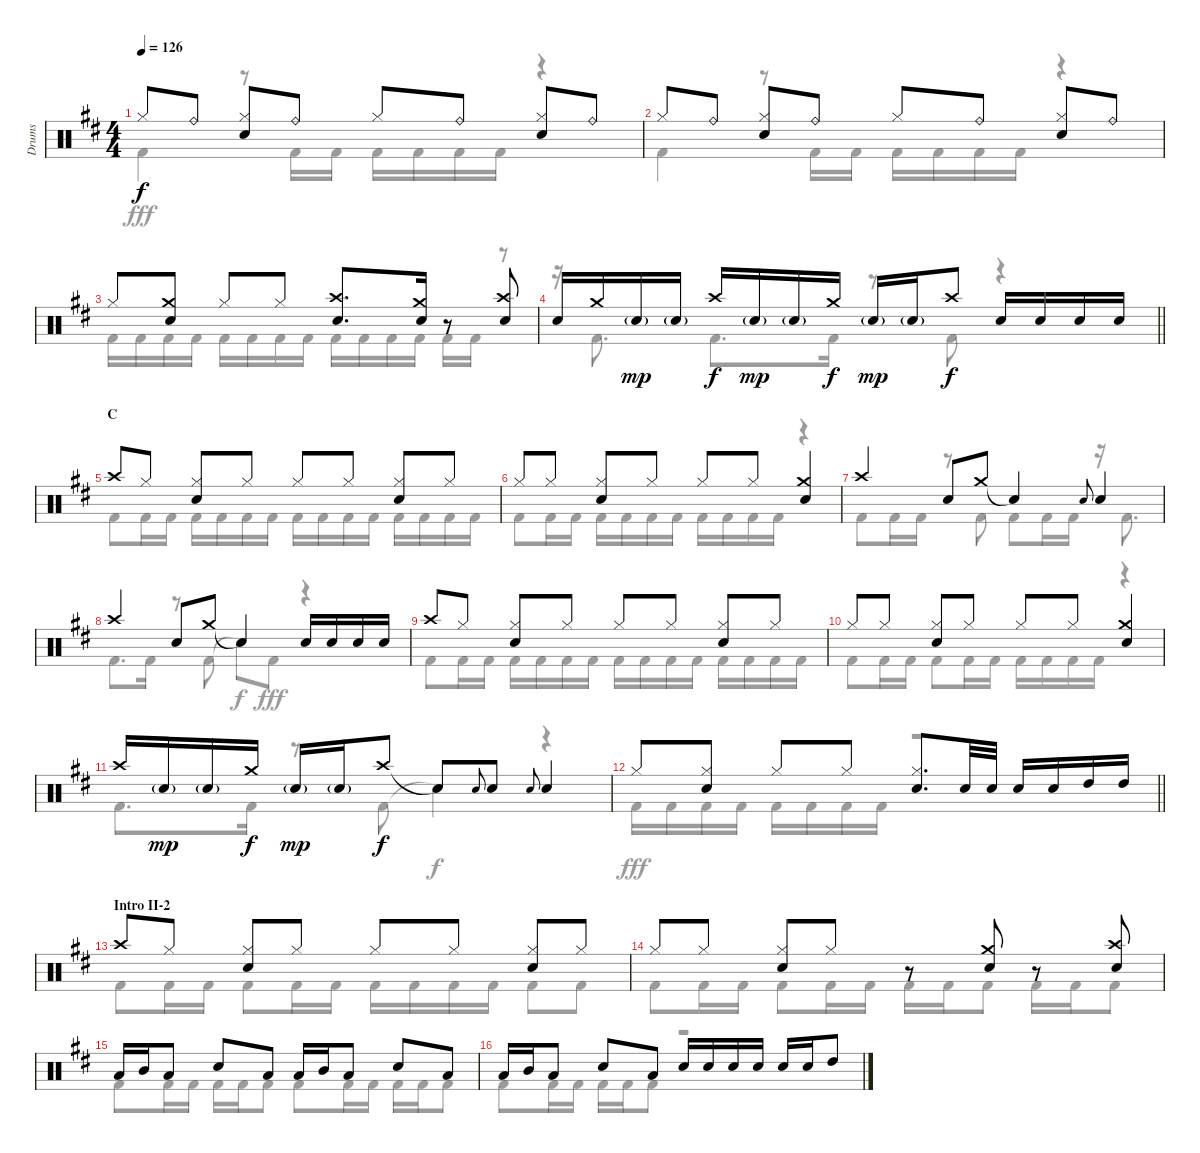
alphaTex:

\track ("Drums" "Drums") {instrument percussion}
\staff {score}
\articulation defaults
\voice
\ts (4 4)
\tempo 126
\clef neutral
\ks d "Hi-Hat (closed)".8{dy f} "Ride (bell)".8
("Hi-Hat (closed)" "Snare (hit) 2").8 "Ride (bell)".8 "Hi-Hat (closed)".8 "Ride (bell)".8 ("Hi-Hat (closed)" "Snare (hit) 2").8 "Ride (bell)".8 |
"Hi-Hat (closed)".8 "Ride (bell)".8 ("Hi-Hat (closed)" "Snare (hit) 2").8 "Ride (bell)".8 "Hi-Hat (closed)".8 "Ride (bell)".8 ("Hi-Hat (closed)" "Snare (hit) 2").8 "Ride (bell)".8 |
"Hi-Hat (closed)".8 ("Crash medium (hit)" "Snare (hit) 2").8 "Hi-Hat (closed)".8 "Hi-Hat (closed)".8 ("Crash high (hit)" "Snare (hit) 2").8{d} ("Crash medium (hit)" "Snare (hit) 2").16 r.8 ("Crash high (hit)" "Snare (hit) 2").8 |
\barLineRight lightlight "Snare (hit) 2".16 "Crash medium (hit)".16 "Snare (hit) 2"{g}.16{dy mp} "Snare (hit) 2"{g}.16 "Crash high (hit)".16{dy f} "Snare (hit) 2"{g}.16{dy mp} "Snare (hit) 2"{g}.16 "Crash medium (hit)".16{dy f} "Snare (hit) 2"{g}.16{dy mp} "Snare (hit) 2"{g}.16 "Crash high (hit)".8{dy f} "Snare (hit) 2".16 "Snare (hit) 2".16 "Snare (hit) 2".16 "Snare (hit) 2".16
|
\section ("" "C")
"Crash high (hit)".8 "Hi-Hat (closed)".8 ("Hi-Hat (closed)" "Snare (hit) 2").8 "Hi-Hat (closed)".8 "Hi-Hat (closed)".8 "Hi-Hat (closed)".8 ("Hi-Hat (closed)" "Snare (hit) 2").8 "Hi-Hat (closed)".8 |
"Hi-Hat (closed)".8 "Hi-Hat (closed)".8 ("Hi-Hat (closed)" "Snare (hit) 2").8 "Hi-Hat (closed)".8 "Hi-Hat (closed)".8 "Hi-Hat (closed)".8 ("Crash medium (hit)" "Snare (hit) 2").4 |
"Crash high (hit)".4 "Snare (hit) 2".8 "Crash medium (hit)".8 "Snare (hit)"{t}.4 "Snare (hit) 2".8{gr onbeat} "Snare (hit) 2".4 |
"Crash high (hit)".4 "Snare (hit) 2".8 "Crash medium (hit)".8 "Snare (hit)"{t}.4 "Snare (hit) 2".16 "Snare (hit) 2".16 "Snare (hit) 2".16 "Snare (hit) 2".16 |
"Crash high (hit)".8 "Hi-Hat (closed)".8 ("Hi-Hat (closed)" "Snare (hit) 2").8 "Hi-Hat (closed)".8 "Hi-Hat (closed)".8 "Hi-Hat (closed)".8 ("Hi-Hat (closed)" "Snare (hit) 2").8 "Hi-Hat (closed)".8 |
"Hi-Hat (closed)".8 "Hi-Hat (closed)".8 ("Hi-Hat (closed)" "Snare (hit) 2").8 "Hi-Hat (closed)".8 "Hi-Hat (closed)".8 "Hi-Hat (closed)".8 ("Crash medium (hit)" "Snare (hit) 2").4 |
"Crash high (hit)".16 "Snare (hit) 2"{g}.16{dy mp} "Snare (hit) 2"{g}.16 "Crash medium (hit)".16{dy f} "Snare (hit) 2"{g}.16{dy mp} "Snare (hit) 2"{g}.16 "Crash high (hit)".8{dy f} "Snare (hit)"{t}.8 "Snare (hit) 2".8{gr onbeat} "Snare (hit) 2".8 "Snare (hit) 2".8{gr onbeat} "Snare (hit) 2".4 |
\barLineRight lightlight "Hi-Hat (closed)".8
("Hi-Hat (closed)" "Snare (hit) 2").8 "Hi-Hat (closed)".8 "Hi-Hat (closed)".8 ("Hi-Hat (closed)" "Snare (hit) 2").8{d} "Snare (hit) 2".32 "Snare (hit) 2".32 "Snare (hit) 2".16 "Snare (hit) 2".16 "High Tom (hit)".16 "High Tom (hit)".16 |
\section ("" "Intro II-2")
"Crash high (hit)".8 "Hi-Hat (closed)".8 ("Hi-Hat (closed)" "Snare (hit) 2").8 "Hi-Hat (closed)".8 "Hi-Hat (closed)".8 "Hi-Hat (closed)".8 ("Hi-Hat (closed)" "Snare (hit) 2").8 "Hi-Hat (closed)".8 |
"Hi-Hat (closed)".8 "Hi-Hat (closed)".8 ("Hi-Hat (closed)" "Snare (hit) 2").8 "Hi-Hat (closed)".8 r.8 ("Crash medium (hit)" "Snare (hit) 2").8 r.8 ("Crash high (hit)" "Snare (hit) 2").8 |
"Low Tom (hit)".16 "Mid Tom (hit)".16 "Low Tom (hit)".8 "Snare (hit) 2".8 "Low Tom (hit)".8 "Low Tom (hit)".16 "Mid Tom (hit)".16 "Low Tom (hit)".8 "Snare (hit) 2".8 "Low Tom (hit)".8 |
"Low Tom (hit)".16 "Mid Tom (hit)".16 "Low Tom (hit)".8 "Snare (hit) 2".8 "Low Tom (hit)".8 "Snare (hit) 2".16 "Snare (hit) 2".16 "Snare (hit) 2".16 "Snare (hit) 2".16 "Snare (hit) 2".16 "Snare (hit) 2".16 "High Tom (hit)".8
\voice
\clef neutral
\ottava regular
\simile none
\ks d "Kick (hit) 2".4{dy fff}
r.8 "Kick (hit) 2".16 "Kick (hit) 2".16 "Kick (hit) 2".16 "Kick (hit) 2".16 "Kick (hit) 2".16 "Kick (hit) 2".16 r.4 |
"Kick (hit) 2".4 r.8 "Kick (hit) 2".16 "Kick (hit) 2".16 "Kick (hit) 2".16 "Kick (hit) 2".16 "Kick (hit) 2".16 "Kick (hit) 2".16 r.4 |
"Kick (hit) 2".16 "Kick (hit) 2".16 "Kick (hit) 2".16 "Kick (hit) 2".16 "Kick (hit) 2".16 "Kick (hit) 2".16 "Kick (hit) 2".16 "Kick (hit) 2".16 "Kick (hit) 2".16 "Kick (hit) 2".16 "Kick (hit) 2".16 "Kick (hit) 2".16 "Kick (hit) 2".16 "Kick (hit) 2".16 r.8 |
\barLineRight lightlight
r.16 "Kick (hit) 2".8{d} "Kick (hit) 2".8{d} "Kick (hit) 2".16 r.8 "Kick (hit) 2".8 r.4 |
"Kick (hit) 2".8 "Kick (hit) 2".16 "Kick (hit) 2".16 "Kick (hit) 2".16 "Kick (hit) 2".16 "Kick (hit) 2".16 "Kick (hit) 2".16 "Kick (hit) 2".16 "Kick (hit) 2".16 "Kick (hit) 2".16 "Kick (hit) 2".16 "Kick (hit) 2".16 "Kick (hit) 2".16 "Kick (hit) 2".16 "Kick (hit) 2".16 |
"Kick (hit) 2".8 "Kick (hit) 2".16 "Kick (hit) 2".16 "Kick (hit) 2".16 "Kick (hit) 2".16 "Kick (hit) 2".16 "Kick (hit) 2".16 "Kick (hit) 2".16 "Kick (hit) 2".16 "Kick (hit) 2".16 "Kick (hit) 2".16 r.4 |
"Kick (hit) 2".8 "Kick (hit) 2".16 "Kick (hit) 2".16 r.8 "Kick (hit) 2".8 "Kick (hit) 2".8 "Kick (hit) 2".16 "Kick (hit) 2".16 r.16 "Kick (hit) 2".8{d} |
"Kick (hit) 2".8{d} "Kick (hit) 2".16 r.8 "Kick (hit) 2".8 "Snare (hit)"{t}.8{dy f} "Kick (hit) 2".8{dy fff} r.4 |
"Kick (hit) 2".8 "Kick (hit) 2".16 "Kick (hit) 2".16 "Kick (hit) 2".16 "Kick (hit) 2".16 "Kick (hit) 2".16 "Kick (hit) 2".16 "Kick (hit) 2".16 "Kick (hit) 2".16 "Kick (hit) 2".16 "Kick (hit) 2".16 "Kick (hit) 2".16 "Kick (hit) 2".16 "Kick (hit) 2".16 "Kick (hit) 2".16 |
"Kick (hit) 2".8 "Kick (hit) 2".16 "Kick (hit) 2".16 "Kick (hit) 2".8 "Kick (hit) 2".16 "Kick (hit) 2".16 "Kick (hit) 2".16 "Kick (hit) 2".16 "Kick (hit) 2".16 "Kick (hit) 2".16 r.4 |
"Kick (hit) 2".8{d} "Kick (hit) 2".16 r.8 "Kick (hit) 2".8 "Snare (hit)"{t}.4{dy f} r.4 |
\barLineRight lightlight "Kick (hit) 2".16{dy fff} "Kick (hit) 2".16 "Kick (hit) 2".16 "Kick (hit) 2".16 "Kick (hit) 2".16 "Kick (hit) 2".16 "Kick (hit) 2".16 "Kick (hit) 2".16
r.2 |
"Kick (hit) 2".8 "Kick (hit) 2".16 "Kick (hit) 2".16 "Kick (hit) 2".8 "Kick (hit) 2".16 "Kick (hit) 2".16 "Kick (hit) 2".16 "Kick (hit) 2".16 "Kick (hit) 2".16 "Kick (hit) 2".16 "Kick (hit) 2".8 "Kick (hit) 2".8 |
"Kick (hit) 2".8 "Kick (hit) 2".16 "Kick (hit) 2".16 "Kick (hit) 2".8 "Kick (hit) 2".16 "Kick (hit) 2".16 "Kick (hit) 2".16 "Kick (hit) 2".16 "Kick (hit) 2".8 "Kick (hit) 2".16 "Kick (hit) 2".16 "Kick (hit) 2".8 |
"Kick (hit) 2".8 "Kick (hit) 2".16 "Kick (hit) 2".16 "Kick (hit) 2".16 "Kick (hit) 2".16 "Kick (hit) 2".8 "Kick (hit) 2".8 "Kick (hit) 2".16 "Kick (hit) 2".16 "Kick (hit) 2".16 "Kick (hit) 2".16 "Kick (hit) 2".8 |
"Kick (hit) 2".8 "Kick (hit) 2".16 "Kick (hit) 2".16 "Kick (hit) 2".16 "Kick (hit) 2".16 "Kick (hit) 2".8 r.2
